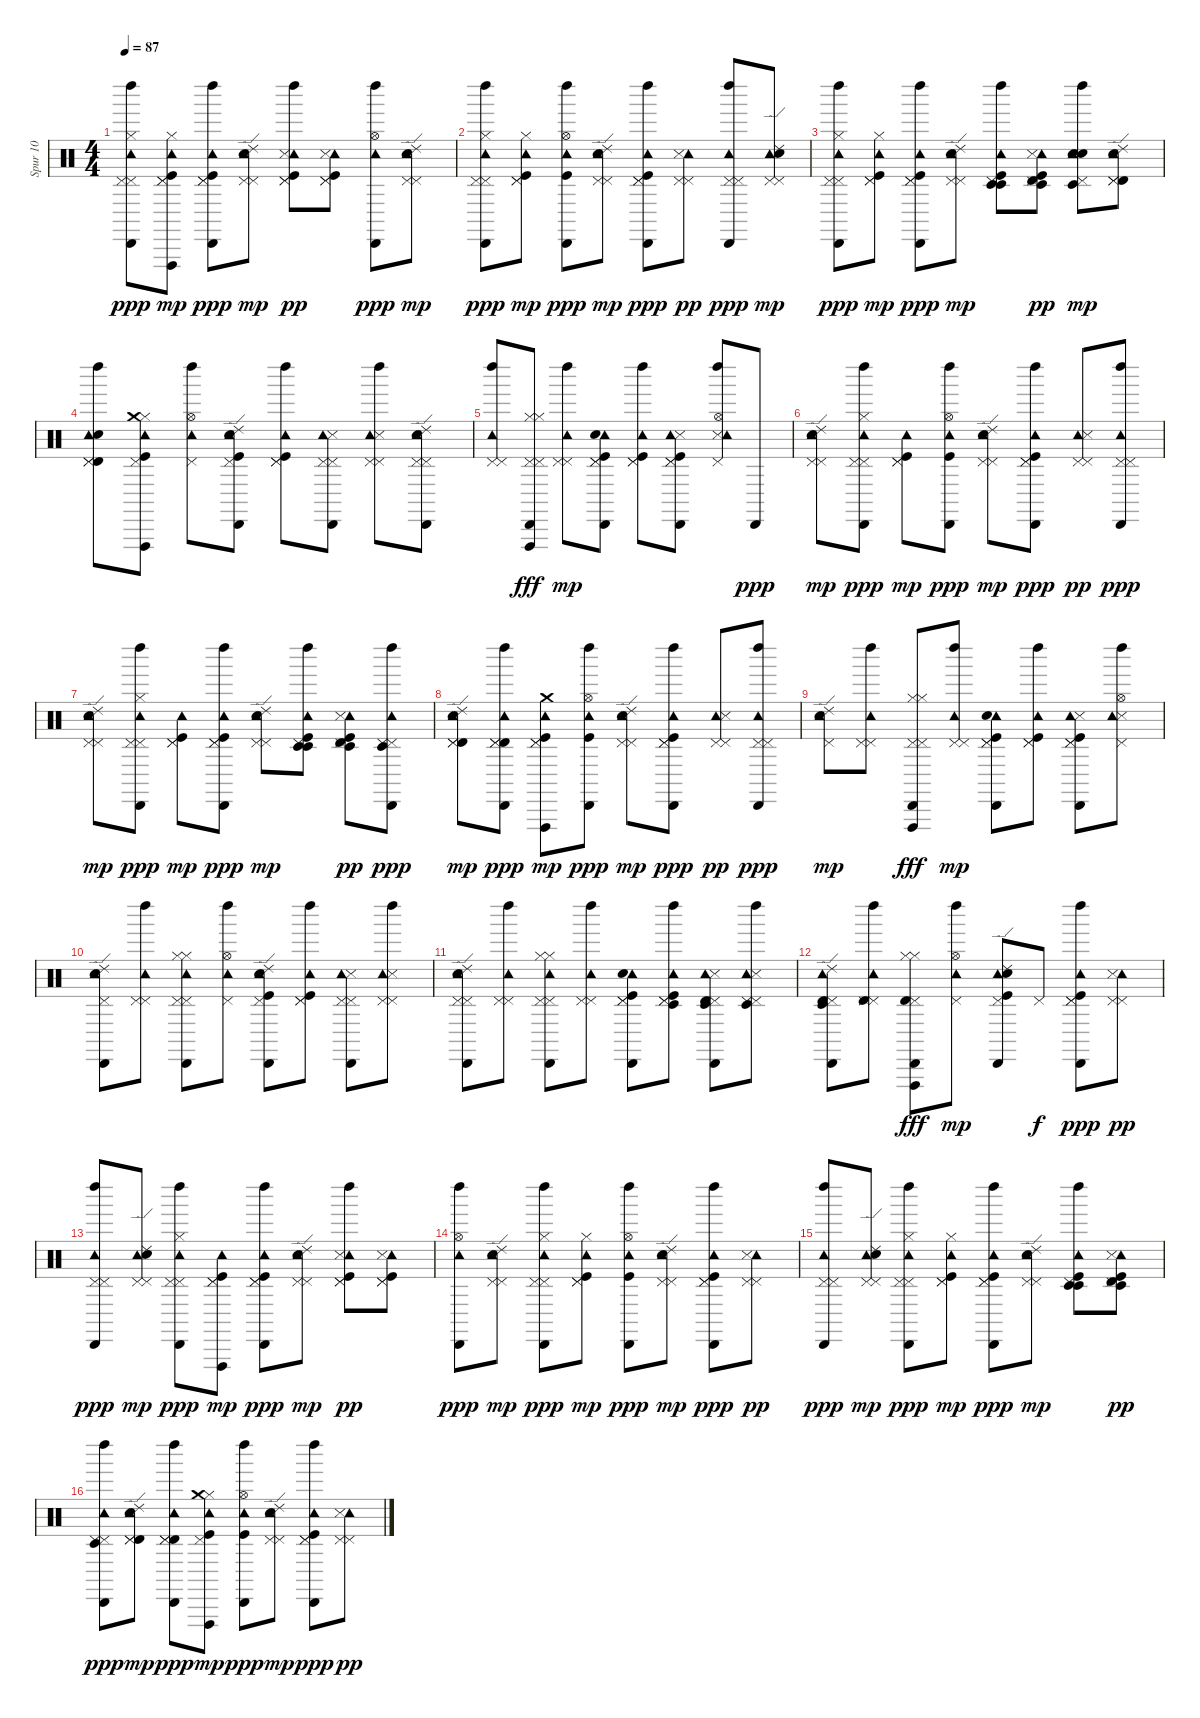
\track ("Spur 10" "Spur 10") {instrument percussion}
\staff {score}
\articulation defaults
\ts (4 4)
\tempo 87
\clef neutral
\ks c
("Left Maraca (hit)" "Pedal Hi-Hat (hit)" "Tambourine (hit)" "Cabasa (hit)" "Pedal Hi-Hat (hit)" "Hi-Hat (closed)").8{dy ppp} ("Hi-Hat (closed)" "Vibraslap (hit)" "Pedal Hi-Hat (hit)" "Tambourine (hit)" "Kick (hit)" "Pedal Hi-Hat (hit)").8{dy mp} ("Left Maraca (hit)" "Pedal Hi-Hat (hit)" "Tambourine (hit)" "Kick (hit)" "Cabasa (hit)" "Pedal Hi-Hat (hit)").8{dy ppp} ("Pedal Hi-Hat (hit)" "Tambourine (hit)" "Electric Snare (hit)" "Ride (edge) 2" "Pedal Hi-Hat (hit)").8{dy mp} ("Kick (hit)" "Tambourine (hit)" "Left Maraca (hit)" "Pedal Hi-Hat (hit)" "Pedal Hi-Hat (hit)" "Snare (side stick) 3").8{dy pp} ("Tambourine (hit)" "Pedal Hi-Hat (hit)" "Kick (hit)" "Snare (side stick) 3" "Pedal Hi-Hat (hit)").8 ("Left Maraca (hit)" "Tambourine (hit)" "Hi-Hat (open)" "Cabasa (hit)").8{dy ppp} ("Ride (edge) 2" "Tambourine (hit)" "Pedal Hi-Hat (hit)" "Electric Snare (hit)" "Pedal Hi-Hat (hit)").8{dy mp} |
("Pedal Hi-Hat (hit)" "Left Maraca (hit)" "Tambourine (hit)" "Pedal Hi-Hat (hit)" "Cabasa (hit)" "Hi-Hat (closed)").8{dy ppp} ("Hi-Hat (closed)" "Pedal Hi-Hat (hit)" "Tambourine (hit)" "Kick (hit)" "Pedal Hi-Hat (hit)").8{dy mp} ("Left Maraca (hit)" "Hi-Hat (open)" "Tambourine (hit)" "Kick (hit)" "Cabasa (hit)").8{dy ppp} ("Ride (edge) 2" "Pedal Hi-Hat (hit)" "Tambourine (hit)" "Electric Snare (hit)" "Pedal Hi-Hat (hit)").8{dy mp} ("Pedal Hi-Hat (hit)" "Kick (hit)" "Tambourine (hit)" "Left Maraca (hit)" "Cabasa (hit)" "Pedal Hi-Hat (hit)").8{dy ppp} ("Pedal Hi-Hat (hit)" "Tambourine (hit)" "Snare (side stick) 3" "Pedal Hi-Hat (hit)").8{dy pp} ("Left Maraca (hit)" "Pedal Hi-Hat (hit)" "Tambourine (hit)" "Cabasa (hit)" "Pedal Hi-Hat (hit)").8{dy ppp} ("Ride (edge) 2" "Pedal Hi-Hat (hit)" "Tambourine (hit)" "Electric Snare (hit)" "Pedal Hi-Hat (hit)").8{dy mp} |
("Left Maraca (hit)" "Pedal Hi-Hat (hit)" "Tambourine (hit)" "Cabasa (hit)" "Pedal Hi-Hat (hit)" "Hi-Hat (closed)").8{dy ppp} ("Hi-Hat (closed)" "Pedal Hi-Hat (hit)" "Tambourine (hit)" "Kick (hit)" "Pedal Hi-Hat (hit)").8{dy mp} ("Left Maraca (hit)" "Pedal Hi-Hat (hit)" "Tambourine (hit)" "Kick (hit)" "Cabasa (hit)" "Pedal Hi-Hat (hit)").8{dy ppp} ("Pedal Hi-Hat (hit)" "Tambourine (hit)" "Electric Snare (hit)" "Ride (edge) 2" "Pedal Hi-Hat (hit)").8{dy mp} ("Timbale low (hit)" "Kick (hit)" "Tambourine (hit)" "Left Maraca (hit)" "Pedal Hi-Hat (hit)" "Timbale low (hit)").8 ("Timbale high (hit)" "Tambourine (hit)" "Pedal Hi-Hat (hit)" "Kick (hit)" "Timbale low (hit)" "Snare (side stick) 3").8{dy pp} ("Electric Snare (hit)" "Pedal Hi-Hat (hit)" "Left Maraca (hit)" "Tambourine (hit)" "Electric Snare (hit)" "Timbale low (hit)").8{dy mp} ("Timbale high (hit)" "Ride (edge) 2" "Tambourine (hit)" "Pedal Hi-Hat (hit)" "Electric Snare (hit)" "Pedal Hi-Hat (hit)").8 |
("Electric Snare (hit)" "Timbale high (hit)" "Pedal Hi-Hat (hit)" "Left Maraca (hit)" "Tambourine (hit)" "Pedal Hi-Hat (hit)").8 ("Hi-Hat (closed)" "Vibraslap (hit)" "Pedal Hi-Hat (hit)" "Tambourine (hit)" "Kick (hit)" "Crash medium (hit)").8 ("Pedal Hi-Hat (hit)" "Left Maraca (hit)" "Hi-Hat (open)" "Tambourine (hit)").8 ("Kick (hit)" "Cabasa (hit)" "Ride (edge) 2" "Pedal Hi-Hat (hit)" "Tambourine (hit)" "Electric Snare (hit)").8 ("Pedal Hi-Hat (hit)" "Pedal Hi-Hat (hit)" "Kick (hit)" "Tambourine (hit)" "Left Maraca (hit)").8 ("Cabasa (hit)" "Pedal Hi-Hat (hit)" "Snare (side stick) 3" "Pedal Hi-Hat (hit)" "Tambourine (hit)").8 ("Snare (side stick) 3" "Pedal Hi-Hat (hit)" "Left Maraca (hit)" "Pedal Hi-Hat (hit)" "Tambourine (hit)").8 ("Cabasa (hit)" "Pedal Hi-Hat (hit)" "Ride (edge) 2" "Pedal Hi-Hat (hit)" "Tambourine (hit)" "Electric Snare (hit)").8 |
("Pedal Hi-Hat (hit)" "Left Maraca (hit)" "Pedal Hi-Hat (hit)" "Tambourine (hit)").8 ("Cabasa (hit)" "Pedal Hi-Hat (hit)" "Hi-Hat (closed)" "Hi-Hat (closed)" "Vibraslap (hit)" "Pedal Hi-Hat (hit)").8{dy fff} ("Pedal Hi-Hat (hit)" "Left Maraca (hit)" "Pedal Hi-Hat (hit)" "Tambourine (hit)").8{dy mp} ("Kick (hit)" "Cabasa (hit)" "Pedal Hi-Hat (hit)" "Pedal Hi-Hat (hit)" "Tambourine (hit)" "Electric Snare (hit)").8 ("Pedal Hi-Hat (hit)" "Kick (hit)" "Tambourine (hit)" "Left Maraca (hit)" "Pedal Hi-Hat (hit)").8 ("Pedal Hi-Hat (hit)" "Snare (side stick) 3" "Cabasa (hit)" "Tambourine (hit)" "Pedal Hi-Hat (hit)" "Kick (hit)").8 ("Snare (side stick) 3" "Pedal Hi-Hat (hit)" "Left Maraca (hit)" "Tambourine (hit)" "Hi-Hat (open)").8 "Cabasa (hit)".8{dy ppp} |
("Ride (edge) 2" "Tambourine (hit)" "Pedal Hi-Hat (hit)" "Electric Snare (hit)" "Pedal Hi-Hat (hit)").8{dy mp} ("Pedal Hi-Hat (hit)" "Left Maraca (hit)" "Tambourine (hit)" "Pedal Hi-Hat (hit)" "Cabasa (hit)" "Hi-Hat (closed)").8{dy ppp} ("Pedal Hi-Hat (hit)" "Tambourine (hit)" "Kick (hit)" "Pedal Hi-Hat (hit)").8{dy mp} ("Left Maraca (hit)" "Hi-Hat (open)" "Tambourine (hit)" "Kick (hit)" "Cabasa (hit)").8{dy ppp} ("Ride (edge) 2" "Pedal Hi-Hat (hit)" "Tambourine (hit)" "Electric Snare (hit)" "Pedal Hi-Hat (hit)").8{dy mp} ("Pedal Hi-Hat (hit)" "Kick (hit)" "Tambourine (hit)" "Left Maraca (hit)" "Cabasa (hit)" "Pedal Hi-Hat (hit)").8{dy ppp} ("Pedal Hi-Hat (hit)" "Tambourine (hit)" "Snare (side stick) 3" "Pedal Hi-Hat (hit)").8{dy pp} ("Left Maraca (hit)" "Pedal Hi-Hat (hit)" "Tambourine (hit)" "Cabasa (hit)" "Pedal Hi-Hat (hit)").8{dy ppp} |
("Ride (edge) 2" "Pedal Hi-Hat (hit)" "Tambourine (hit)" "Electric Snare (hit)" "Pedal Hi-Hat (hit)").8{dy mp} ("Left Maraca (hit)" "Pedal Hi-Hat (hit)" "Tambourine (hit)" "Cabasa (hit)" "Pedal Hi-Hat (hit)" "Hi-Hat (closed)").8{dy ppp} ("Pedal Hi-Hat (hit)" "Tambourine (hit)" "Kick (hit)" "Pedal Hi-Hat (hit)").8{dy mp} ("Left Maraca (hit)" "Pedal Hi-Hat (hit)" "Tambourine (hit)" "Kick (hit)" "Cabasa (hit)" "Pedal Hi-Hat (hit)").8{dy ppp} ("Pedal Hi-Hat (hit)" "Tambourine (hit)" "Electric Snare (hit)" "Ride (edge) 2" "Pedal Hi-Hat (hit)").8{dy mp} ("Timbale low (hit)" "Kick (hit)" "Tambourine (hit)" "Left Maraca (hit)" "Pedal Hi-Hat (hit)" "Timbale low (hit)").8 ("Timbale high (hit)" "Tambourine (hit)" "Pedal Hi-Hat (hit)" "Kick (hit)" "Timbale low (hit)" "Snare (side stick) 3").8{dy pp} ("Pedal Hi-Hat (hit)" "Left Maraca (hit)" "Tambourine (hit)" "Timbale low (hit)" "Pedal Hi-Hat (hit)" "Cabasa (hit)").8{dy ppp} |
("Timbale high (hit)" "Ride (edge) 2" "Tambourine (hit)" "Pedal Hi-Hat (hit)" "Electric Snare (hit)" "Pedal Hi-Hat (hit)").8{dy mp} ("Timbale high (hit)" "Pedal Hi-Hat (hit)" "Left Maraca (hit)" "Tambourine (hit)" "Pedal Hi-Hat (hit)" "Cabasa (hit)").8{dy ppp} ("Vibraslap (hit)" "Pedal Hi-Hat (hit)" "Tambourine (hit)" "Kick (hit)" "Crash medium (hit)" "Pedal Hi-Hat (hit)").8{dy mp} ("Left Maraca (hit)" "Hi-Hat (open)" "Tambourine (hit)" "Kick (hit)" "Cabasa (hit)").8{dy ppp} ("Ride (edge) 2" "Pedal Hi-Hat (hit)" "Tambourine (hit)" "Electric Snare (hit)" "Pedal Hi-Hat (hit)").8{dy mp} ("Pedal Hi-Hat (hit)" "Kick (hit)" "Tambourine (hit)" "Left Maraca (hit)" "Cabasa (hit)" "Pedal Hi-Hat (hit)").8{dy ppp} ("Pedal Hi-Hat (hit)" "Tambourine (hit)" "Snare (side stick) 3" "Pedal Hi-Hat (hit)").8{dy pp} ("Left Maraca (hit)" "Pedal Hi-Hat (hit)" "Tambourine (hit)" "Cabasa (hit)" "Pedal Hi-Hat (hit)").8{dy ppp} |
("Ride (edge) 2" "Pedal Hi-Hat (hit)" "Tambourine (hit)" "Electric Snare (hit)").8{dy mp} ("Pedal Hi-Hat (hit)" "Left Maraca (hit)" "Pedal Hi-Hat (hit)" "Tambourine (hit)").8 ("Cabasa (hit)" "Pedal Hi-Hat (hit)" "Hi-Hat (closed)" "Hi-Hat (closed)" "Vibraslap (hit)" "Pedal Hi-Hat (hit)").8{dy fff} ("Pedal Hi-Hat (hit)" "Left Maraca (hit)" "Pedal Hi-Hat (hit)" "Tambourine (hit)").8{dy mp} ("Kick (hit)" "Cabasa (hit)" "Pedal Hi-Hat (hit)" "Pedal Hi-Hat (hit)" "Tambourine (hit)" "Electric Snare (hit)").8 ("Pedal Hi-Hat (hit)" "Kick (hit)" "Tambourine (hit)" "Left Maraca (hit)" "Pedal Hi-Hat (hit)").8 ("Pedal Hi-Hat (hit)" "Snare (side stick) 3" "Cabasa (hit)" "Tambourine (hit)" "Pedal Hi-Hat (hit)" "Kick (hit)").8 ("Snare (side stick) 3" "Pedal Hi-Hat (hit)" "Left Maraca (hit)" "Tambourine (hit)" "Hi-Hat (open)").8 |
("Cabasa (hit)" "Ride (edge) 2" "Tambourine (hit)" "Pedal Hi-Hat (hit)" "Electric Snare (hit)").8 ("Pedal Hi-Hat (hit)" "Pedal Hi-Hat (hit)" "Left Maraca (hit)" "Tambourine (hit)").8 ("Pedal Hi-Hat (hit)" "Cabasa (hit)" "Hi-Hat (closed)" "Hi-Hat (closed)" "Pedal Hi-Hat (hit)" "Tambourine (hit)").8 ("Pedal Hi-Hat (hit)" "Left Maraca (hit)" "Hi-Hat (open)" "Tambourine (hit)").8 ("Kick (hit)" "Cabasa (hit)" "Ride (edge) 2" "Pedal Hi-Hat (hit)" "Tambourine (hit)" "Electric Snare (hit)").8 ("Pedal Hi-Hat (hit)" "Pedal Hi-Hat (hit)" "Kick (hit)" "Tambourine (hit)" "Left Maraca (hit)").8 ("Cabasa (hit)" "Pedal Hi-Hat (hit)" "Snare (side stick) 3" "Pedal Hi-Hat (hit)" "Tambourine (hit)").8 ("Snare (side stick) 3" "Pedal Hi-Hat (hit)" "Left Maraca (hit)" "Pedal Hi-Hat (hit)" "Tambourine (hit)").8 |
("Cabasa (hit)" "Pedal Hi-Hat (hit)" "Ride (edge) 2" "Pedal Hi-Hat (hit)" "Tambourine (hit)" "Electric Snare (hit)").8 ("Pedal Hi-Hat (hit)" "Left Maraca (hit)" "Pedal Hi-Hat (hit)" "Tambourine (hit)").8 ("Cabasa (hit)" "Pedal Hi-Hat (hit)" "Hi-Hat (closed)" "Hi-Hat (closed)" "Pedal Hi-Hat (hit)" "Tambourine (hit)").8 ("Pedal Hi-Hat (hit)" "Left Maraca (hit)" "Pedal Hi-Hat (hit)" "Tambourine (hit)").8 ("Kick (hit)" "Cabasa (hit)" "Pedal Hi-Hat (hit)" "Pedal Hi-Hat (hit)" "Tambourine (hit)" "Electric Snare (hit)").8 ("Pedal Hi-Hat (hit)" "Timbale low (hit)" "Kick (hit)" "Tambourine (hit)" "Left Maraca (hit)" "Pedal Hi-Hat (hit)").8 ("Timbale low (hit)" "Pedal Hi-Hat (hit)" "Snare (side stick) 3" "Cabasa (hit)" "Timbale high (hit)" "Tambourine (hit)").8 ("Timbale low (hit)" "Snare (side stick) 3" "Pedal Hi-Hat (hit)" "Pedal Hi-Hat (hit)" "Left Maraca (hit)" "Tambourine (hit)").8 |
("Timbale low (hit)" "Pedal Hi-Hat (hit)" "Cabasa (hit)" "Timbale high (hit)" "Ride (edge) 2" "Tambourine (hit)").8 ("Pedal Hi-Hat (hit)" "Timbale high (hit)" "Pedal Hi-Hat (hit)" "Left Maraca (hit)" "Tambourine (hit)").8 ("Pedal Hi-Hat (hit)" "Cabasa (hit)" "Timbale high (hit)" "Hi-Hat (closed)" "Hi-Hat (closed)" "Vibraslap (hit)").8{dy fff} ("Pedal Hi-Hat (hit)" "Left Maraca (hit)" "Hi-Hat (open)" "Tambourine (hit)").8{dy mp} ("Kick (hit)" "Cabasa (hit)" "Ride (edge) 2" "Pedal Hi-Hat (hit)" "Tambourine (hit)" "Electric Snare (hit)").8 "Pedal Hi-Hat (hit)".8{dy f} ("Pedal Hi-Hat (hit)" "Kick (hit)" "Tambourine (hit)" "Left Maraca (hit)" "Cabasa (hit)" "Pedal Hi-Hat (hit)").8{dy ppp} ("Pedal Hi-Hat (hit)" "Tambourine (hit)" "Snare (side stick) 3" "Pedal Hi-Hat (hit)").8{dy pp} |
("Left Maraca (hit)" "Pedal Hi-Hat (hit)" "Tambourine (hit)" "Cabasa (hit)" "Pedal Hi-Hat (hit)").8{dy ppp} ("Ride (edge) 2" "Pedal Hi-Hat (hit)" "Tambourine (hit)" "Electric Snare (hit)" "Pedal Hi-Hat (hit)").8{dy mp} ("Left Maraca (hit)" "Pedal Hi-Hat (hit)" "Tambourine (hit)" "Cabasa (hit)" "Pedal Hi-Hat (hit)" "Hi-Hat (closed)").8{dy ppp} ("Vibraslap (hit)" "Pedal Hi-Hat (hit)" "Tambourine (hit)" "Kick (hit)" "Pedal Hi-Hat (hit)").8{dy mp} ("Left Maraca (hit)" "Pedal Hi-Hat (hit)" "Tambourine (hit)" "Kick (hit)" "Cabasa (hit)" "Pedal Hi-Hat (hit)").8{dy ppp} ("Pedal Hi-Hat (hit)" "Tambourine (hit)" "Electric Snare (hit)" "Ride (edge) 2" "Pedal Hi-Hat (hit)").8{dy mp} ("Kick (hit)" "Tambourine (hit)" "Left Maraca (hit)" "Pedal Hi-Hat (hit)" "Pedal Hi-Hat (hit)" "Snare (side stick) 3").8{dy pp} ("Tambourine (hit)" "Pedal Hi-Hat (hit)" "Kick (hit)" "Snare (side stick) 3" "Pedal Hi-Hat (hit)").8 |
("Left Maraca (hit)" "Tambourine (hit)" "Hi-Hat (open)" "Cabasa (hit)").8{dy ppp} ("Ride (edge) 2" "Tambourine (hit)" "Pedal Hi-Hat (hit)" "Electric Snare (hit)" "Pedal Hi-Hat (hit)").8{dy mp} ("Pedal Hi-Hat (hit)" "Left Maraca (hit)" "Tambourine (hit)" "Pedal Hi-Hat (hit)" "Cabasa (hit)" "Hi-Hat (closed)").8{dy ppp} ("Hi-Hat (closed)" "Pedal Hi-Hat (hit)" "Tambourine (hit)" "Kick (hit)" "Pedal Hi-Hat (hit)").8{dy mp} ("Left Maraca (hit)" "Hi-Hat (open)" "Tambourine (hit)" "Kick (hit)" "Cabasa (hit)").8{dy ppp} ("Ride (edge) 2" "Pedal Hi-Hat (hit)" "Tambourine (hit)" "Electric Snare (hit)" "Pedal Hi-Hat (hit)").8{dy mp} ("Pedal Hi-Hat (hit)" "Kick (hit)" "Tambourine (hit)" "Left Maraca (hit)" "Cabasa (hit)" "Pedal Hi-Hat (hit)").8{dy ppp} ("Pedal Hi-Hat (hit)" "Tambourine (hit)" "Snare (side stick) 3" "Pedal Hi-Hat (hit)").8{dy pp} |
("Left Maraca (hit)" "Pedal Hi-Hat (hit)" "Tambourine (hit)" "Cabasa (hit)" "Pedal Hi-Hat (hit)").8{dy ppp} ("Ride (edge) 2" "Pedal Hi-Hat (hit)" "Tambourine (hit)" "Electric Snare (hit)" "Pedal Hi-Hat (hit)").8{dy mp} ("Left Maraca (hit)" "Pedal Hi-Hat (hit)" "Tambourine (hit)" "Cabasa (hit)" "Pedal Hi-Hat (hit)" "Hi-Hat (closed)").8{dy ppp} ("Hi-Hat (closed)" "Pedal Hi-Hat (hit)" "Tambourine (hit)" "Kick (hit)" "Pedal Hi-Hat (hit)").8{dy mp} ("Left Maraca (hit)" "Pedal Hi-Hat (hit)" "Tambourine (hit)" "Kick (hit)" "Cabasa (hit)" "Pedal Hi-Hat (hit)").8{dy ppp} ("Pedal Hi-Hat (hit)" "Tambourine (hit)" "Electric Snare (hit)" "Ride (edge) 2" "Pedal Hi-Hat (hit)").8{dy mp} ("Timbale low (hit)" "Kick (hit)" "Tambourine (hit)" "Left Maraca (hit)" "Pedal Hi-Hat (hit)" "Timbale low (hit)").8 ("Timbale high (hit)" "Tambourine (hit)" "Pedal Hi-Hat (hit)" "Kick (hit)" "Timbale low (hit)" "Snare (side stick) 3").8{dy pp} |
("Pedal Hi-Hat (hit)" "Left Maraca (hit)" "Tambourine (hit)" "Timbale low (hit)" "Pedal Hi-Hat (hit)" "Cabasa (hit)").8{dy ppp} ("Timbale high (hit)" "Ride (edge) 2" "Tambourine (hit)" "Pedal Hi-Hat (hit)" "Electric Snare (hit)" "Pedal Hi-Hat (hit)").8{dy mp} ("Timbale high (hit)" "Pedal Hi-Hat (hit)" "Left Maraca (hit)" "Tambourine (hit)" "Pedal Hi-Hat (hit)" "Cabasa (hit)").8{dy ppp} ("Hi-Hat (closed)" "Vibraslap (hit)" "Pedal Hi-Hat (hit)" "Tambourine (hit)" "Kick (hit)" "Crash medium (hit)").8{dy mp} ("Left Maraca (hit)" "Hi-Hat (open)" "Tambourine (hit)" "Kick (hit)" "Cabasa (hit)").8{dy ppp} ("Ride (edge) 2" "Pedal Hi-Hat (hit)" "Tambourine (hit)" "Electric Snare (hit)" "Pedal Hi-Hat (hit)").8{dy mp} ("Pedal Hi-Hat (hit)" "Kick (hit)" "Tambourine (hit)" "Left Maraca (hit)" "Cabasa (hit)" "Pedal Hi-Hat (hit)").8{dy ppp} ("Pedal Hi-Hat (hit)" "Tambourine (hit)" "Snare (side stick) 3" "Pedal Hi-Hat (hit)").8{dy pp}
